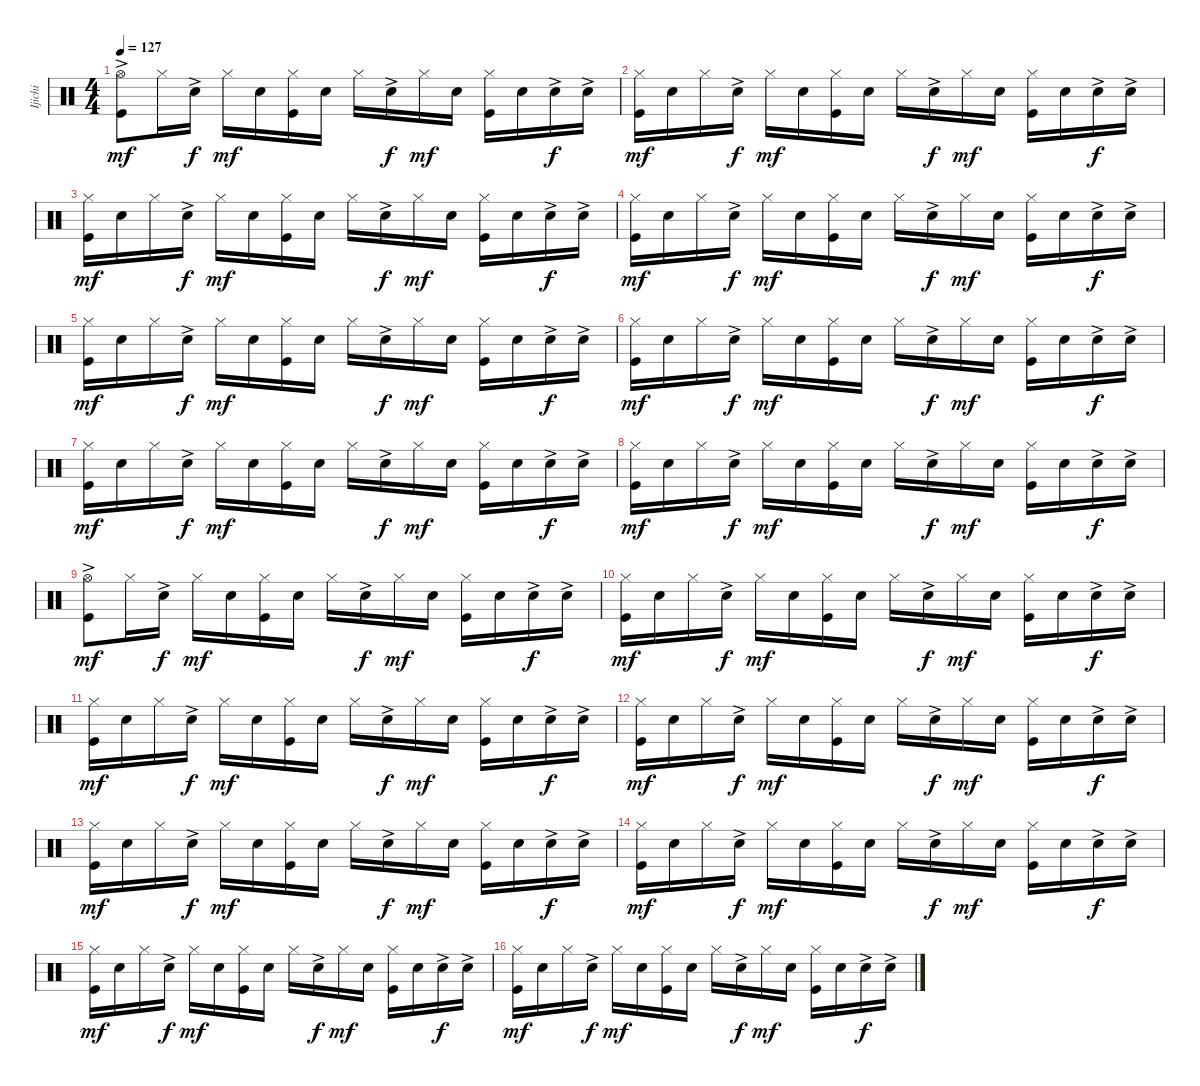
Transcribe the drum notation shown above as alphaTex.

\track ("Ijichi" "Ijichi") {instrument percussion}
\staff {score}
\articulation defaults
\ts (4 4)
\tempo 127
\clef neutral
\ks c
("Hi-Hat (open)"{ac} "Kick (hit)").8{dy mf} "Hi-Hat (closed)".16 "Electric Snare (hit)"{ac}.16{dy f} "Hi-Hat (closed)".16{dy mf} "Electric Snare (hit)".16 ("Hi-Hat (closed)" "Kick (hit)").16 "Electric Snare (hit)".16 "Hi-Hat (closed)".16 "Electric Snare (hit)"{ac}.16{dy f} "Hi-Hat (closed)".16{dy mf} "Electric Snare (hit)".16 ("Hi-Hat (closed)" "Kick (hit)").16 "Electric Snare (hit)".16 "Electric Snare (hit)"{ac}.16{dy f} "Electric Snare (hit)"{ac}.16 |
("Hi-Hat (closed)" "Kick (hit)").16{dy mf} "Electric Snare (hit)".16 "Hi-Hat (closed)".16 "Electric Snare (hit)"{ac}.16{dy f} "Hi-Hat (closed)".16{dy mf} "Electric Snare (hit)".16 ("Hi-Hat (closed)" "Kick (hit)").16 "Electric Snare (hit)".16 "Hi-Hat (closed)".16 "Electric Snare (hit)"{ac}.16{dy f} "Hi-Hat (closed)".16{dy mf} "Electric Snare (hit)".16 ("Hi-Hat (closed)" "Kick (hit)").16 "Electric Snare (hit)".16 "Electric Snare (hit)"{ac}.16{dy f} "Electric Snare (hit)"{ac}.16 |
("Hi-Hat (closed)" "Kick (hit)").16{dy mf} "Electric Snare (hit)".16 "Hi-Hat (closed)".16 "Electric Snare (hit)"{ac}.16{dy f} "Hi-Hat (closed)".16{dy mf} "Electric Snare (hit)".16 ("Hi-Hat (closed)" "Kick (hit)").16 "Electric Snare (hit)".16 "Hi-Hat (closed)".16 "Electric Snare (hit)"{ac}.16{dy f} "Hi-Hat (closed)".16{dy mf} "Electric Snare (hit)".16 ("Hi-Hat (closed)" "Kick (hit)").16 "Electric Snare (hit)".16 "Electric Snare (hit)"{ac}.16{dy f} "Electric Snare (hit)"{ac}.16 |
("Hi-Hat (closed)" "Kick (hit)").16{dy mf} "Electric Snare (hit)".16 "Hi-Hat (closed)".16 "Electric Snare (hit)"{ac}.16{dy f} "Hi-Hat (closed)".16{dy mf} "Electric Snare (hit)".16 ("Hi-Hat (closed)" "Kick (hit)").16 "Electric Snare (hit)".16 "Hi-Hat (closed)".16 "Electric Snare (hit)"{ac}.16{dy f} "Hi-Hat (closed)".16{dy mf} "Electric Snare (hit)".16 ("Hi-Hat (closed)" "Kick (hit)").16 "Electric Snare (hit)".16 "Electric Snare (hit)"{ac}.16{dy f} "Electric Snare (hit)"{ac}.16 |
("Hi-Hat (closed)" "Kick (hit)").16{dy mf} "Electric Snare (hit)".16 "Hi-Hat (closed)".16 "Electric Snare (hit)"{ac}.16{dy f} "Hi-Hat (closed)".16{dy mf} "Electric Snare (hit)".16 ("Hi-Hat (closed)" "Kick (hit)").16 "Electric Snare (hit)".16 "Hi-Hat (closed)".16 "Electric Snare (hit)"{ac}.16{dy f} "Hi-Hat (closed)".16{dy mf} "Electric Snare (hit)".16 ("Hi-Hat (closed)" "Kick (hit)").16 "Electric Snare (hit)".16 "Electric Snare (hit)"{ac}.16{dy f} "Electric Snare (hit)"{ac}.16 |
("Hi-Hat (closed)" "Kick (hit)").16{dy mf} "Electric Snare (hit)".16 "Hi-Hat (closed)".16 "Electric Snare (hit)"{ac}.16{dy f} "Hi-Hat (closed)".16{dy mf} "Electric Snare (hit)".16 ("Hi-Hat (closed)" "Kick (hit)").16 "Electric Snare (hit)".16 "Hi-Hat (closed)".16 "Electric Snare (hit)"{ac}.16{dy f} "Hi-Hat (closed)".16{dy mf} "Electric Snare (hit)".16 ("Hi-Hat (closed)" "Kick (hit)").16 "Electric Snare (hit)".16 "Electric Snare (hit)"{ac}.16{dy f} "Electric Snare (hit)"{ac}.16 |
("Hi-Hat (closed)" "Kick (hit)").16{dy mf} "Electric Snare (hit)".16 "Hi-Hat (closed)".16 "Electric Snare (hit)"{ac}.16{dy f} "Hi-Hat (closed)".16{dy mf} "Electric Snare (hit)".16 ("Hi-Hat (closed)" "Kick (hit)").16 "Electric Snare (hit)".16 "Hi-Hat (closed)".16 "Electric Snare (hit)"{ac}.16{dy f} "Hi-Hat (closed)".16{dy mf} "Electric Snare (hit)".16 ("Hi-Hat (closed)" "Kick (hit)").16 "Electric Snare (hit)".16 "Electric Snare (hit)"{ac}.16{dy f} "Electric Snare (hit)"{ac}.16 |
("Hi-Hat (closed)" "Kick (hit)").16{dy mf} "Electric Snare (hit)".16 "Hi-Hat (closed)".16 "Electric Snare (hit)"{ac}.16{dy f} "Hi-Hat (closed)".16{dy mf} "Electric Snare (hit)".16 ("Hi-Hat (closed)" "Kick (hit)").16 "Electric Snare (hit)".16 "Hi-Hat (closed)".16 "Electric Snare (hit)"{ac}.16{dy f} "Hi-Hat (closed)".16{dy mf} "Electric Snare (hit)".16 ("Hi-Hat (closed)" "Kick (hit)").16 "Electric Snare (hit)".16 "Electric Snare (hit)"{ac}.16{dy f} "Electric Snare (hit)"{ac}.16 |
("Hi-Hat (open)"{ac} "Kick (hit)").8{dy mf} "Hi-Hat (closed)".16 "Electric Snare (hit)"{ac}.16{dy f} "Hi-Hat (closed)".16{dy mf} "Electric Snare (hit)".16 ("Hi-Hat (closed)" "Kick (hit)").16 "Electric Snare (hit)".16 "Hi-Hat (closed)".16 "Electric Snare (hit)"{ac}.16{dy f} "Hi-Hat (closed)".16{dy mf} "Electric Snare (hit)".16 ("Hi-Hat (closed)" "Kick (hit)").16 "Electric Snare (hit)".16 "Electric Snare (hit)"{ac}.16{dy f} "Electric Snare (hit)"{ac}.16 |
("Hi-Hat (closed)" "Kick (hit)").16{dy mf} "Electric Snare (hit)".16 "Hi-Hat (closed)".16 "Electric Snare (hit)"{ac}.16{dy f} "Hi-Hat (closed)".16{dy mf} "Electric Snare (hit)".16 ("Hi-Hat (closed)" "Kick (hit)").16 "Electric Snare (hit)".16 "Hi-Hat (closed)".16 "Electric Snare (hit)"{ac}.16{dy f} "Hi-Hat (closed)".16{dy mf} "Electric Snare (hit)".16 ("Hi-Hat (closed)" "Kick (hit)").16 "Electric Snare (hit)".16 "Electric Snare (hit)"{ac}.16{dy f} "Electric Snare (hit)"{ac}.16 |
("Hi-Hat (closed)" "Kick (hit)").16{dy mf} "Electric Snare (hit)".16 "Hi-Hat (closed)".16 "Electric Snare (hit)"{ac}.16{dy f} "Hi-Hat (closed)".16{dy mf} "Electric Snare (hit)".16 ("Hi-Hat (closed)" "Kick (hit)").16 "Electric Snare (hit)".16 "Hi-Hat (closed)".16 "Electric Snare (hit)"{ac}.16{dy f} "Hi-Hat (closed)".16{dy mf} "Electric Snare (hit)".16 ("Hi-Hat (closed)" "Kick (hit)").16 "Electric Snare (hit)".16 "Electric Snare (hit)"{ac}.16{dy f} "Electric Snare (hit)"{ac}.16 |
("Hi-Hat (closed)" "Kick (hit)").16{dy mf} "Electric Snare (hit)".16 "Hi-Hat (closed)".16 "Electric Snare (hit)"{ac}.16{dy f} "Hi-Hat (closed)".16{dy mf} "Electric Snare (hit)".16 ("Hi-Hat (closed)" "Kick (hit)").16 "Electric Snare (hit)".16 "Hi-Hat (closed)".16 "Electric Snare (hit)"{ac}.16{dy f} "Hi-Hat (closed)".16{dy mf} "Electric Snare (hit)".16 ("Hi-Hat (closed)" "Kick (hit)").16 "Electric Snare (hit)".16 "Electric Snare (hit)"{ac}.16{dy f} "Electric Snare (hit)"{ac}.16 |
("Hi-Hat (closed)" "Kick (hit)").16{dy mf} "Electric Snare (hit)".16 "Hi-Hat (closed)".16 "Electric Snare (hit)"{ac}.16{dy f} "Hi-Hat (closed)".16{dy mf} "Electric Snare (hit)".16 ("Hi-Hat (closed)" "Kick (hit)").16 "Electric Snare (hit)".16 "Hi-Hat (closed)".16 "Electric Snare (hit)"{ac}.16{dy f} "Hi-Hat (closed)".16{dy mf} "Electric Snare (hit)".16 ("Hi-Hat (closed)" "Kick (hit)").16 "Electric Snare (hit)".16 "Electric Snare (hit)"{ac}.16{dy f} "Electric Snare (hit)"{ac}.16 |
("Hi-Hat (closed)" "Kick (hit)").16{dy mf} "Electric Snare (hit)".16 "Hi-Hat (closed)".16 "Electric Snare (hit)"{ac}.16{dy f} "Hi-Hat (closed)".16{dy mf} "Electric Snare (hit)".16 ("Hi-Hat (closed)" "Kick (hit)").16 "Electric Snare (hit)".16 "Hi-Hat (closed)".16 "Electric Snare (hit)"{ac}.16{dy f} "Hi-Hat (closed)".16{dy mf} "Electric Snare (hit)".16 ("Hi-Hat (closed)" "Kick (hit)").16 "Electric Snare (hit)".16 "Electric Snare (hit)"{ac}.16{dy f} "Electric Snare (hit)"{ac}.16 |
("Hi-Hat (closed)" "Kick (hit)").16{dy mf} "Electric Snare (hit)".16 "Hi-Hat (closed)".16 "Electric Snare (hit)"{ac}.16{dy f} "Hi-Hat (closed)".16{dy mf} "Electric Snare (hit)".16 ("Hi-Hat (closed)" "Kick (hit)").16 "Electric Snare (hit)".16 "Hi-Hat (closed)".16 "Electric Snare (hit)"{ac}.16{dy f} "Hi-Hat (closed)".16{dy mf} "Electric Snare (hit)".16 ("Hi-Hat (closed)" "Kick (hit)").16 "Electric Snare (hit)".16 "Electric Snare (hit)"{ac}.16{dy f} "Electric Snare (hit)"{ac}.16 |
("Hi-Hat (closed)" "Kick (hit)").16{dy mf} "Electric Snare (hit)".16 "Hi-Hat (closed)".16 "Electric Snare (hit)"{ac}.16{dy f} "Hi-Hat (closed)".16{dy mf} "Electric Snare (hit)".16 ("Hi-Hat (closed)" "Kick (hit)").16 "Electric Snare (hit)".16 "Hi-Hat (closed)".16 "Electric Snare (hit)"{ac}.16{dy f} "Hi-Hat (closed)".16{dy mf} "Electric Snare (hit)".16 ("Hi-Hat (closed)" "Kick (hit)").16 "Electric Snare (hit)".16 "Electric Snare (hit)"{ac}.16{dy f} "Electric Snare (hit)"{ac}.16
